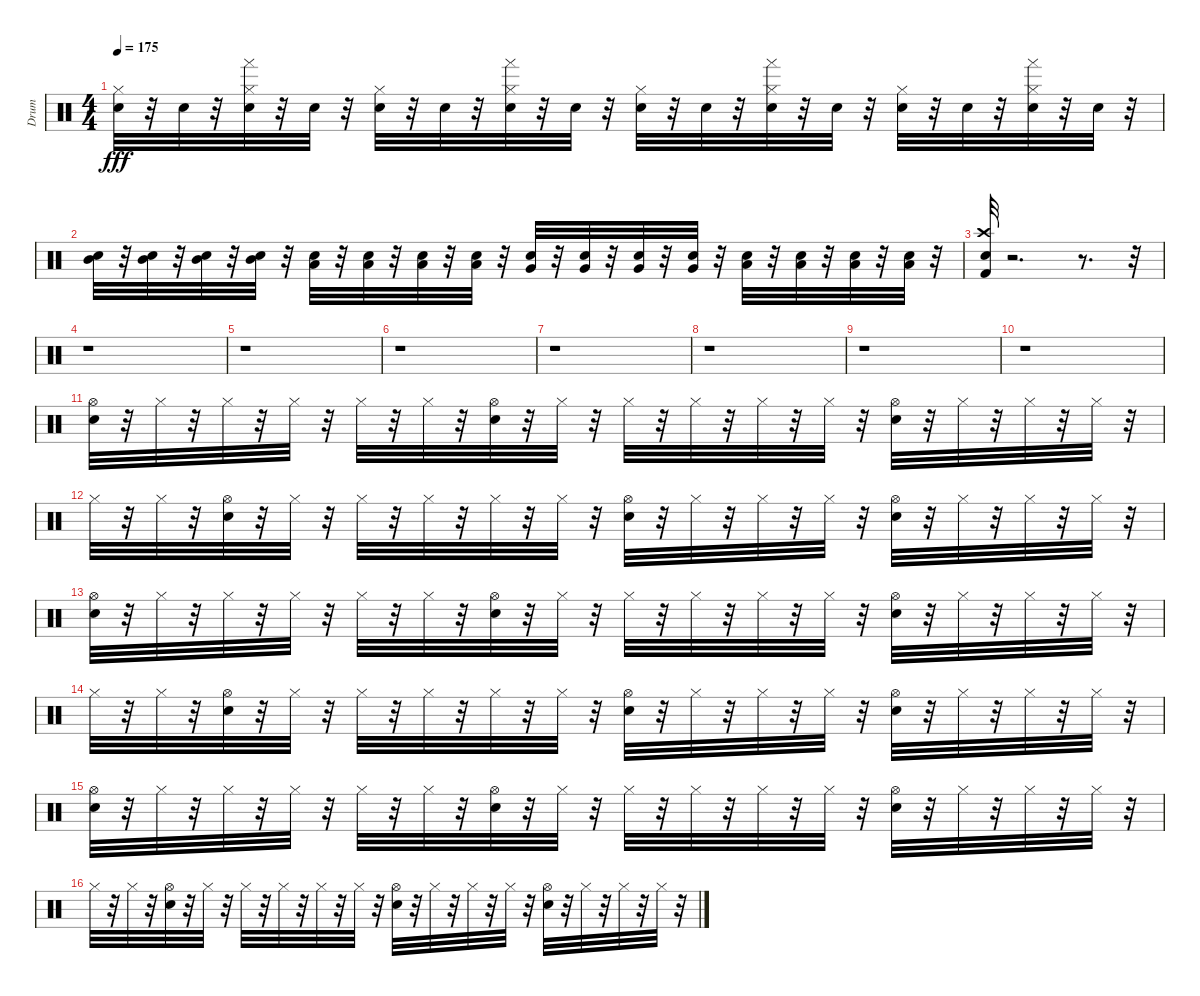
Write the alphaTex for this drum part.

\track ("Drum" "Drum") {instrument percussion}
\staff {score}
\articulation defaults
\ts (4 4)
\tempo 175
\clef neutral
\ks c
("Hi-Hat (closed)" "Snare (hit)").32{dy fff} r.32 "Snare (hit)".32 r.32 ("Hi-Hat (closed)" "Tambourine (hand)" "Snare (hit)").32 r.32 "Snare (hit)".32 r.32 ("Hi-Hat (closed)" "Snare (hit)").32 r.32 "Snare (hit)".32 r.32 ("Hi-Hat (closed)" "Tambourine (hand)" "Snare (hit)").32 r.32 "Snare (hit)".32 r.32 ("Hi-Hat (closed)" "Snare (hit)").32 r.32 "Snare (hit)".32 r.32 ("Hi-Hat (closed)" "Tambourine (hand)" "Snare (hit)").32 r.32 "Snare (hit)".32 r.32 ("Hi-Hat (closed)" "Snare (hit)").32 r.32 "Snare (hit)".32 r.32 ("Hi-Hat (closed)" "Tambourine (hand)" "Snare (hit)").32 r.32 "Snare (hit)".32 r.32 |
("Mid Tom (hit)" "Snare (hit)").32 r.32 ("Mid Tom (hit)" "Snare (hit)").32 r.32 ("Mid Tom (hit)" "Snare (hit)").32 r.32 ("Mid Tom (hit)" "Snare (hit)").32 r.32 ("Low Tom (hit)" "Snare (hit)").32 r.32 ("Low Tom (hit)" "Snare (hit)").32 r.32 ("Low Tom (hit)" "Snare (hit)").32 r.32 ("Low Tom (hit)" "Snare (hit)").32 r.32 ("Very Low Tom (hit)" "Snare (hit)").32 r.32 ("Very Low Tom (hit)" "Snare (hit)").32 r.32 ("Very Low Tom (hit)" "Snare (hit)").32 r.32 ("Very Low Tom (hit)" "Snare (hit)").32 r.32 ("Low Floor Tom (hit)" "Snare (hit)").32 r.32 ("Low Floor Tom (hit)" "Snare (hit)").32 r.32 ("Low Floor Tom (hit)" "Snare (hit)").32 r.32 ("Low Floor Tom (hit)" "Snare (hit)").32 r.32 |
("Crash high (hit)" "Snare (hit)" "Kick (hit) 2").32 r.2{d} r.8{d} r.32 |
r.1 |
r.1 |
r.1 |
r.1 |
r.1 |
r.1 |
r.1 |
("Hi-Hat (open)" "Snare (hit)").32 r.32 "Hi-Hat (closed)".32 r.32 "Hi-Hat (closed)".32 r.32 "Hi-Hat (closed)".32 r.32 "Hi-Hat (closed)".32 r.32 "Hi-Hat (closed)".32 r.32 ("Hi-Hat (open)" "Snare (hit)").32 r.32 "Hi-Hat (closed)".32 r.32 "Hi-Hat (closed)".32 r.32 "Hi-Hat (closed)".32 r.32 "Hi-Hat (closed)".32 r.32 "Hi-Hat (closed)".32 r.32 ("Hi-Hat (open)" "Snare (hit)").32 r.32 "Hi-Hat (closed)".32 r.32 "Hi-Hat (closed)".32 r.32 "Hi-Hat (closed)".32 r.32 |
"Hi-Hat (closed)".32 r.32 "Hi-Hat (closed)".32 r.32 ("Hi-Hat (open)" "Snare (hit)").32 r.32 "Hi-Hat (closed)".32 r.32 "Hi-Hat (closed)".32 r.32 "Hi-Hat (closed)".32 r.32 "Hi-Hat (closed)".32 r.32 "Hi-Hat (closed)".32 r.32 ("Hi-Hat (open)" "Snare (hit)").32 r.32 "Hi-Hat (closed)".32 r.32 "Hi-Hat (closed)".32 r.32 "Hi-Hat (closed)".32 r.32 ("Hi-Hat (open)" "Snare (hit)").32 r.32 "Hi-Hat (closed)".32 r.32 "Hi-Hat (closed)".32 r.32 "Hi-Hat (closed)".32 r.32 |
("Hi-Hat (open)" "Snare (hit)").32 r.32 "Hi-Hat (closed)".32 r.32 "Hi-Hat (closed)".32 r.32 "Hi-Hat (closed)".32 r.32 "Hi-Hat (closed)".32 r.32 "Hi-Hat (closed)".32 r.32 ("Hi-Hat (open)" "Snare (hit)").32 r.32 "Hi-Hat (closed)".32 r.32 "Hi-Hat (closed)".32 r.32 "Hi-Hat (closed)".32 r.32 "Hi-Hat (closed)".32 r.32 "Hi-Hat (closed)".32 r.32 ("Hi-Hat (open)" "Snare (hit)").32 r.32 "Hi-Hat (closed)".32 r.32 "Hi-Hat (closed)".32 r.32 "Hi-Hat (closed)".32 r.32 |
"Hi-Hat (closed)".32 r.32 "Hi-Hat (closed)".32 r.32 ("Hi-Hat (open)" "Snare (hit)").32 r.32 "Hi-Hat (closed)".32 r.32 "Hi-Hat (closed)".32 r.32 "Hi-Hat (closed)".32 r.32 "Hi-Hat (closed)".32 r.32 "Hi-Hat (closed)".32 r.32 ("Hi-Hat (open)" "Snare (hit)").32 r.32 "Hi-Hat (closed)".32 r.32 "Hi-Hat (closed)".32 r.32 "Hi-Hat (closed)".32 r.32 ("Hi-Hat (open)" "Snare (hit)").32 r.32 "Hi-Hat (closed)".32 r.32 "Hi-Hat (closed)".32 r.32 "Hi-Hat (closed)".32 r.32 |
("Hi-Hat (open)" "Snare (hit)").32 r.32 "Hi-Hat (closed)".32 r.32 "Hi-Hat (closed)".32 r.32 "Hi-Hat (closed)".32 r.32 "Hi-Hat (closed)".32 r.32 "Hi-Hat (closed)".32 r.32 ("Hi-Hat (open)" "Snare (hit)").32 r.32 "Hi-Hat (closed)".32 r.32 "Hi-Hat (closed)".32 r.32 "Hi-Hat (closed)".32 r.32 "Hi-Hat (closed)".32 r.32 "Hi-Hat (closed)".32 r.32 ("Hi-Hat (open)" "Snare (hit)").32 r.32 "Hi-Hat (closed)".32 r.32 "Hi-Hat (closed)".32 r.32 "Hi-Hat (closed)".32 r.32 |
"Hi-Hat (closed)".32 r.32 "Hi-Hat (closed)".32 r.32 ("Hi-Hat (open)" "Snare (hit)").32 r.32 "Hi-Hat (closed)".32 r.32 "Hi-Hat (closed)".32 r.32 "Hi-Hat (closed)".32 r.32 "Hi-Hat (closed)".32 r.32 "Hi-Hat (closed)".32 r.32 ("Hi-Hat (open)" "Snare (hit)").32 r.32 "Hi-Hat (closed)".32 r.32 "Hi-Hat (closed)".32 r.32 "Hi-Hat (closed)".32 r.32 ("Hi-Hat (open)" "Snare (hit)").32 r.32 "Hi-Hat (closed)".32 r.32 "Hi-Hat (closed)".32 r.32 "Hi-Hat (closed)".32 r.32
